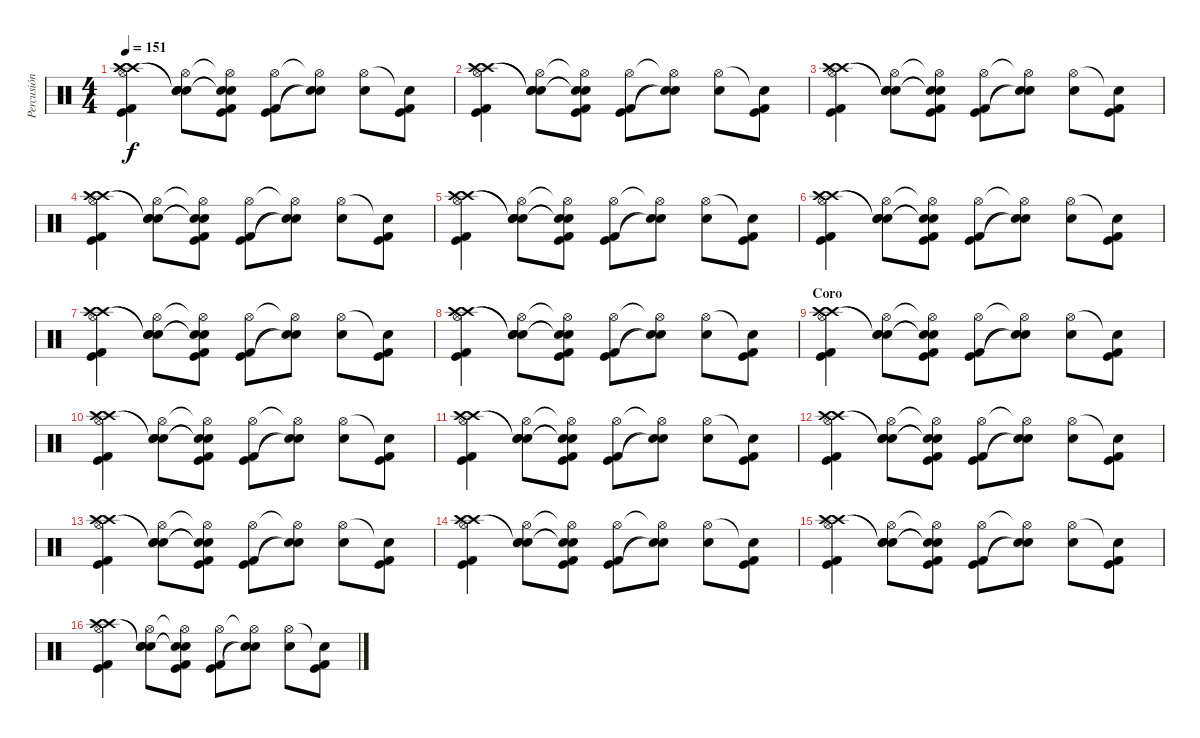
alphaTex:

\track ("Percusión" "Percusión") {instrument percussion}
\staff {score}
\articulation defaults
\ts (4 4)
\tempo 151
\clef neutral
\ks c
("Hi-Hat (open)" "Crash high (hit)" "Crash high (hit)" "Kick (hit)" "Kick (hit) 2").4{dy f} ("Hi-Hat (open)" "Snare (hit)"{t} "Snare (hit)"{t} "Electric Snare (hit)").8 ("Hi-Hat (open)"{t} "Snare (hit)"{t} "Snare (hit)"{t} "Kick (hit)" "Kick (hit) 2").8 ("Hi-Hat (open)" "Kick (hit)" "Kick (hit) 2").8 ("Hi-Hat (open)"{t} "Electric Snare (hit)"{t} "Snare (hit)"{t}).8 ("Hi-Hat (open)" "Electric Snare (hit)").8 ("Snare (hit)"{t} "Kick (hit)" "Kick (hit) 2").8 |
("Hi-Hat (open)" "Crash high (hit)" "Crash high (hit)" "Kick (hit)" "Kick (hit) 2").4 ("Hi-Hat (open)" "Snare (hit)"{t} "Snare (hit)"{t} "Electric Snare (hit)").8 ("Hi-Hat (open)"{t} "Snare (hit)"{t} "Snare (hit)"{t} "Kick (hit)" "Kick (hit) 2").8 ("Hi-Hat (open)" "Kick (hit)" "Kick (hit) 2").8 ("Hi-Hat (open)"{t} "Electric Snare (hit)"{t} "Snare (hit)"{t}).8 ("Hi-Hat (open)" "Electric Snare (hit)").8 ("Snare (hit)"{t} "Kick (hit)" "Kick (hit) 2").8 |
("Hi-Hat (open)" "Crash high (hit)" "Crash high (hit)" "Kick (hit)" "Kick (hit) 2").4 ("Hi-Hat (open)" "Snare (hit)"{t} "Snare (hit)"{t} "Electric Snare (hit)").8 ("Hi-Hat (open)"{t} "Snare (hit)"{t} "Snare (hit)"{t} "Kick (hit)" "Kick (hit) 2").8 ("Hi-Hat (open)" "Kick (hit)" "Kick (hit) 2").8 ("Hi-Hat (open)"{t} "Electric Snare (hit)"{t} "Snare (hit)"{t}).8 ("Hi-Hat (open)" "Electric Snare (hit)").8 ("Snare (hit)"{t} "Kick (hit)" "Kick (hit) 2").8 |
("Hi-Hat (open)" "Crash high (hit)" "Crash high (hit)" "Kick (hit)" "Kick (hit) 2").4 ("Hi-Hat (open)" "Snare (hit)"{t} "Snare (hit)"{t} "Electric Snare (hit)").8 ("Hi-Hat (open)"{t} "Snare (hit)"{t} "Snare (hit)"{t} "Kick (hit)" "Kick (hit) 2").8 ("Hi-Hat (open)" "Kick (hit)" "Kick (hit) 2").8 ("Hi-Hat (open)"{t} "Electric Snare (hit)"{t} "Snare (hit)"{t}).8 ("Hi-Hat (open)" "Electric Snare (hit)").8 ("Snare (hit)"{t} "Kick (hit)" "Kick (hit) 2").8 |
("Hi-Hat (open)" "Crash high (hit)" "Crash high (hit)" "Kick (hit)" "Kick (hit) 2").4 ("Hi-Hat (open)" "Snare (hit)"{t} "Snare (hit)"{t} "Electric Snare (hit)").8 ("Hi-Hat (open)"{t} "Snare (hit)"{t} "Snare (hit)"{t} "Kick (hit)" "Kick (hit) 2").8 ("Hi-Hat (open)" "Kick (hit)" "Kick (hit) 2").8 ("Hi-Hat (open)"{t} "Electric Snare (hit)"{t} "Snare (hit)"{t}).8 ("Hi-Hat (open)" "Electric Snare (hit)").8 ("Snare (hit)"{t} "Kick (hit)" "Kick (hit) 2").8 |
("Hi-Hat (open)" "Crash high (hit)" "Crash high (hit)" "Kick (hit)" "Kick (hit) 2").4 ("Hi-Hat (open)" "Snare (hit)"{t} "Snare (hit)"{t} "Electric Snare (hit)").8 ("Hi-Hat (open)"{t} "Snare (hit)"{t} "Snare (hit)"{t} "Kick (hit)" "Kick (hit) 2").8 ("Hi-Hat (open)" "Kick (hit)" "Kick (hit) 2").8 ("Hi-Hat (open)"{t} "Electric Snare (hit)"{t} "Snare (hit)"{t}).8 ("Hi-Hat (open)" "Electric Snare (hit)").8 ("Snare (hit)"{t} "Kick (hit)" "Kick (hit) 2").8 |
("Hi-Hat (open)" "Crash high (hit)" "Crash high (hit)" "Kick (hit)" "Kick (hit) 2").4 ("Hi-Hat (open)" "Snare (hit)"{t} "Snare (hit)"{t} "Electric Snare (hit)").8 ("Hi-Hat (open)"{t} "Snare (hit)"{t} "Snare (hit)"{t} "Kick (hit)" "Kick (hit) 2").8 ("Hi-Hat (open)" "Kick (hit)" "Kick (hit) 2").8 ("Hi-Hat (open)"{t} "Electric Snare (hit)"{t} "Snare (hit)"{t}).8 ("Hi-Hat (open)" "Electric Snare (hit)").8 ("Snare (hit)"{t} "Kick (hit)" "Kick (hit) 2").8 |
("Hi-Hat (open)" "Crash high (hit)" "Crash high (hit)" "Kick (hit)" "Kick (hit) 2").4 ("Hi-Hat (open)" "Snare (hit)"{t} "Snare (hit)"{t} "Electric Snare (hit)").8 ("Hi-Hat (open)"{t} "Snare (hit)"{t} "Snare (hit)"{t} "Kick (hit)" "Kick (hit) 2").8 ("Hi-Hat (open)" "Kick (hit)" "Kick (hit) 2").8 ("Hi-Hat (open)"{t} "Electric Snare (hit)"{t} "Snare (hit)"{t}).8 ("Hi-Hat (open)" "Electric Snare (hit)").8 ("Snare (hit)"{t} "Kick (hit)" "Kick (hit) 2").8 |
\section ("" "Coro")
("Hi-Hat (open)" "Crash high (hit)" "Crash high (hit)" "Kick (hit)" "Kick (hit) 2").4 ("Hi-Hat (open)" "Snare (hit)"{t} "Snare (hit)"{t} "Electric Snare (hit)").8 ("Hi-Hat (open)"{t} "Snare (hit)"{t} "Snare (hit)"{t} "Kick (hit)" "Kick (hit) 2").8 ("Hi-Hat (open)" "Kick (hit)" "Kick (hit) 2").8 ("Hi-Hat (open)"{t} "Electric Snare (hit)"{t} "Snare (hit)"{t}).8 ("Hi-Hat (open)" "Electric Snare (hit)").8 ("Snare (hit)"{t} "Kick (hit)" "Kick (hit) 2").8 |
("Hi-Hat (open)" "Crash high (hit)" "Crash high (hit)" "Kick (hit)" "Kick (hit) 2").4 ("Hi-Hat (open)" "Snare (hit)"{t} "Snare (hit)"{t} "Electric Snare (hit)").8 ("Hi-Hat (open)"{t} "Snare (hit)"{t} "Snare (hit)"{t} "Kick (hit)" "Kick (hit) 2").8 ("Hi-Hat (open)" "Kick (hit)" "Kick (hit) 2").8 ("Hi-Hat (open)"{t} "Electric Snare (hit)"{t} "Snare (hit)"{t}).8 ("Hi-Hat (open)" "Electric Snare (hit)").8 ("Snare (hit)"{t} "Kick (hit)" "Kick (hit) 2").8 |
("Hi-Hat (open)" "Crash high (hit)" "Crash high (hit)" "Kick (hit)" "Kick (hit) 2").4 ("Hi-Hat (open)" "Snare (hit)"{t} "Snare (hit)"{t} "Electric Snare (hit)").8 ("Hi-Hat (open)"{t} "Snare (hit)"{t} "Snare (hit)"{t} "Kick (hit)" "Kick (hit) 2").8 ("Hi-Hat (open)" "Kick (hit)" "Kick (hit) 2").8 ("Hi-Hat (open)"{t} "Electric Snare (hit)"{t} "Snare (hit)"{t}).8 ("Hi-Hat (open)" "Electric Snare (hit)").8 ("Snare (hit)"{t} "Kick (hit)" "Kick (hit) 2").8 |
("Hi-Hat (open)" "Crash high (hit)" "Crash high (hit)" "Kick (hit)" "Kick (hit) 2").4 ("Hi-Hat (open)" "Snare (hit)"{t} "Snare (hit)"{t} "Electric Snare (hit)").8 ("Hi-Hat (open)"{t} "Snare (hit)"{t} "Snare (hit)"{t} "Kick (hit)" "Kick (hit) 2").8 ("Hi-Hat (open)" "Kick (hit)" "Kick (hit) 2").8 ("Hi-Hat (open)"{t} "Electric Snare (hit)"{t} "Snare (hit)"{t}).8 ("Hi-Hat (open)" "Electric Snare (hit)").8 ("Snare (hit)"{t} "Kick (hit)" "Kick (hit) 2").8 |
("Hi-Hat (open)" "Crash high (hit)" "Crash high (hit)" "Kick (hit)" "Kick (hit) 2").4 ("Hi-Hat (open)" "Snare (hit)"{t} "Snare (hit)"{t} "Electric Snare (hit)").8 ("Hi-Hat (open)"{t} "Snare (hit)"{t} "Snare (hit)"{t} "Kick (hit)" "Kick (hit) 2").8 ("Hi-Hat (open)" "Kick (hit)" "Kick (hit) 2").8 ("Hi-Hat (open)"{t} "Electric Snare (hit)"{t} "Snare (hit)"{t}).8 ("Hi-Hat (open)" "Electric Snare (hit)").8 ("Snare (hit)"{t} "Kick (hit)" "Kick (hit) 2").8 |
("Hi-Hat (open)" "Crash high (hit)" "Crash high (hit)" "Kick (hit)" "Kick (hit) 2").4 ("Hi-Hat (open)" "Snare (hit)"{t} "Snare (hit)"{t} "Electric Snare (hit)").8 ("Hi-Hat (open)"{t} "Snare (hit)"{t} "Snare (hit)"{t} "Kick (hit)" "Kick (hit) 2").8 ("Hi-Hat (open)" "Kick (hit)" "Kick (hit) 2").8 ("Hi-Hat (open)"{t} "Electric Snare (hit)"{t} "Snare (hit)"{t}).8 ("Hi-Hat (open)" "Electric Snare (hit)").8 ("Snare (hit)"{t} "Kick (hit)" "Kick (hit) 2").8 |
("Hi-Hat (open)" "Crash high (hit)" "Crash high (hit)" "Kick (hit)" "Kick (hit) 2").4 ("Hi-Hat (open)" "Snare (hit)"{t} "Snare (hit)"{t} "Electric Snare (hit)").8 ("Hi-Hat (open)"{t} "Snare (hit)"{t} "Snare (hit)"{t} "Kick (hit)" "Kick (hit) 2").8 ("Hi-Hat (open)" "Kick (hit)" "Kick (hit) 2").8 ("Hi-Hat (open)"{t} "Electric Snare (hit)"{t} "Snare (hit)"{t}).8 ("Hi-Hat (open)" "Electric Snare (hit)").8 ("Snare (hit)"{t} "Kick (hit)" "Kick (hit) 2").8 |
("Hi-Hat (open)" "Crash high (hit)" "Crash high (hit)" "Kick (hit)" "Kick (hit) 2").4 ("Hi-Hat (open)" "Snare (hit)"{t} "Snare (hit)"{t} "Electric Snare (hit)").8 ("Hi-Hat (open)"{t} "Snare (hit)"{t} "Snare (hit)"{t} "Kick (hit)" "Kick (hit) 2").8 ("Hi-Hat (open)" "Kick (hit)" "Kick (hit) 2").8 ("Hi-Hat (open)"{t} "Electric Snare (hit)"{t} "Snare (hit)"{t}).8 ("Hi-Hat (open)" "Electric Snare (hit)").8 ("Snare (hit)"{t} "Kick (hit)" "Kick (hit) 2").8
